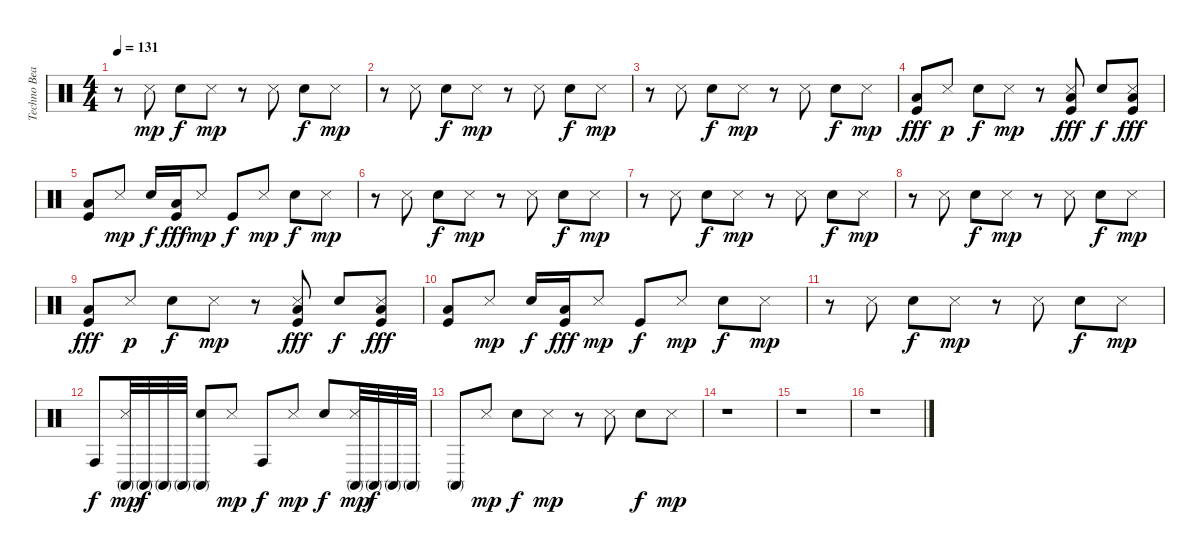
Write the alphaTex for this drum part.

\track ("Techno Beat" "Techno Bea") {instrument percussion}
\staff {score}
\articulation defaults
\ts (4 4)
\tempo 131
\clef neutral
\ks c
r.8{dy mp} "Snare (side stick) 3".8 "Electric Snare (hit)".8{dy f} "Snare (side stick) 3".8{dy mp} r.8 "Snare (side stick) 3".8 "Electric Snare (hit)".8{dy f} "Snare (side stick) 3".8{dy mp} |
r.8 "Snare (side stick) 3".8 "Electric Snare (hit)".8{dy f} "Snare (side stick) 3".8{dy mp} r.8 "Snare (side stick) 3".8 "Electric Snare (hit)".8{dy f} "Snare (side stick) 3".8{dy mp} |
r.8 "Snare (side stick) 3".8 "Electric Snare (hit)".8{dy f} "Snare (side stick) 3".8{dy mp} r.8 "Snare (side stick) 3".8 "Electric Snare (hit)".8{dy f} "Snare (side stick) 3".8{dy mp} |
("Low Tom (hit)" "Kick (hit)").8{dy fff} "Snare (side stick) 3".8{dy p} "Electric Snare (hit)".8{dy f} "Snare (side stick) 3".8{dy mp} r.8 ("Snare (side stick) 3" "Low Tom (hit)" "Kick (hit)").8{dy fff} "Electric Snare (hit)".8{dy f} ("Snare (side stick) 3" "Low Tom (hit)" "Kick (hit)").8{dy fff} |
("Low Tom (hit)" "Kick (hit)").8 "Snare (side stick) 3".8{dy mp} "Electric Snare (hit)".16{dy f} ("Low Tom (hit)" "Kick (hit)").16{dy fff} "Snare (side stick) 3".8{dy mp} "Kick (hit)".8{dy f} "Snare (side stick) 3".8{dy mp} "Electric Snare (hit)".8{dy f} "Snare (side stick) 3".8{dy mp} |
r.8 "Snare (side stick) 3".8 "Electric Snare (hit)".8{dy f} "Snare (side stick) 3".8{dy mp} r.8 "Snare (side stick) 3".8 "Electric Snare (hit)".8{dy f} "Snare (side stick) 3".8{dy mp} |
r.8 "Snare (side stick) 3".8 "Electric Snare (hit)".8{dy f} "Snare (side stick) 3".8{dy mp} r.8 "Snare (side stick) 3".8 "Electric Snare (hit)".8{dy f} "Snare (side stick) 3".8{dy mp} |
r.8 "Snare (side stick) 3".8 "Electric Snare (hit)".8{dy f} "Snare (side stick) 3".8{dy mp} r.8 "Snare (side stick) 3".8 "Electric Snare (hit)".8{dy f} "Snare (side stick) 3".8{dy mp} |
("Low Tom (hit)" "Kick (hit)").8{dy fff} "Snare (side stick) 3".8{dy p} "Electric Snare (hit)".8{dy f} "Snare (side stick) 3".8{dy mp} r.8 ("Snare (side stick) 3" "Low Tom (hit)" "Kick (hit)").8{dy fff} "Electric Snare (hit)".8{dy f} ("Snare (side stick) 3" "Low Tom (hit)" "Kick (hit)").8{dy fff} |
("Low Tom (hit)" "Kick (hit)").8 "Snare (side stick) 3".8{dy mp} "Electric Snare (hit)".16{dy f} ("Low Tom (hit)" "Kick (hit)").16{dy fff} "Snare (side stick) 3".8{dy mp} "Kick (hit)".8{dy f} "Snare (side stick) 3".8{dy mp} "Electric Snare (hit)".8{dy f} "Snare (side stick) 3".8{dy mp} |
r.8 "Snare (side stick) 3".8 "Electric Snare (hit)".8{dy f} "Snare (side stick) 3".8{dy mp} r.8 "Snare (side stick) 3".8 "Electric Snare (hit)".8{dy f} "Snare (side stick) 3".8{dy mp} |
"Conga high (hit)".8{dy f} ("Snare (side stick) 3" "Conga high (mute)").32{dy mp} "Conga high (mute)".32{dy f} "Conga high (mute)".32 "Conga high (mute)".32 ("Conga high (mute)" "Electric Snare (hit)").8 "Snare (side stick) 3".8{dy mp} "Conga high (hit)".8{dy f} "Snare (side stick) 3".8{dy mp} "Electric Snare (hit)".8{dy f} ("Snare (side stick) 3" "Conga high (mute)").32{dy mp} "Conga high (mute)".32{dy f} "Conga high (mute)".32 "Conga high (mute)".32 |
"Conga high (mute)".8 "Snare (side stick) 3".8{dy mp} "Electric Snare (hit)".8{dy f} "Snare (side stick) 3".8{dy mp} r.8 "Snare (side stick) 3".8 "Electric Snare (hit)".8{dy f} "Snare (side stick) 3".8{dy mp} |
r.1 |
r.1 |
r.1
